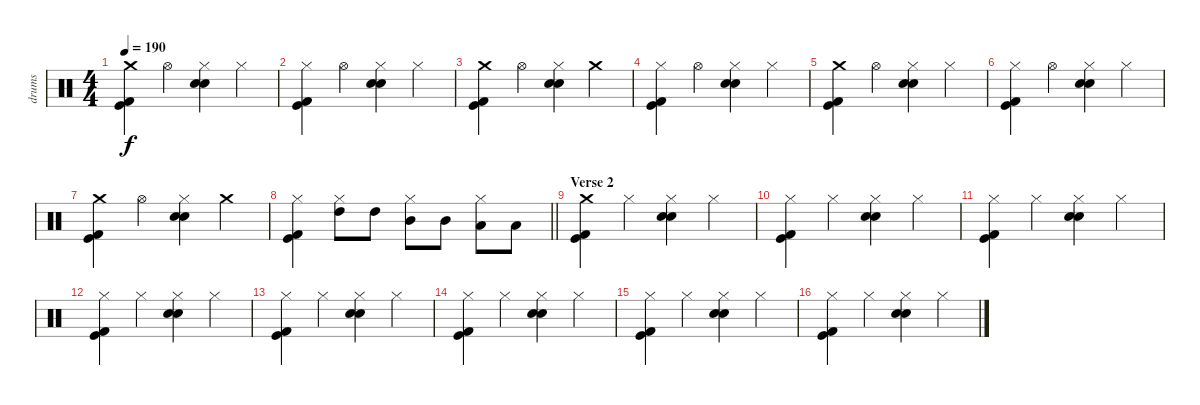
\track ("drums" "drums") {instrument percussion}
\staff {score}
\articulation defaults
\ts (4 4)
\tempo 190
\clef neutral
\ks c
("Crash medium (hit)" "Kick (hit) 2" "Kick (hit)").4{dy f} "Hi-Hat (open)".4 ("Hi-Hat (closed)" "Snare (hit) 2" "Electric Snare (hit)").4 "Hi-Hat (closed)".4 |
("Hi-Hat (closed)" "Kick (hit) 2" "Kick (hit)").4 "Hi-Hat (open)".4 ("Hi-Hat (closed)" "Snare (hit) 2" "Electric Snare (hit)").4 "Hi-Hat (closed)".4 |
("Crash medium (hit)" "Kick (hit) 2" "Kick (hit)").4 "Hi-Hat (open)".4 ("Hi-Hat (closed)" "Snare (hit) 2" "Electric Snare (hit)").4 "Crash medium (hit)".4 |
("Hi-Hat (closed)" "Kick (hit) 2" "Kick (hit)").4 "Hi-Hat (open)".4 ("Hi-Hat (closed)" "Snare (hit) 2" "Electric Snare (hit)").4 "Hi-Hat (closed)".4 |
("Crash medium (hit)" "Kick (hit) 2" "Kick (hit)").4 "Hi-Hat (open)".4 ("Hi-Hat (closed)" "Snare (hit) 2" "Electric Snare (hit)").4 "Hi-Hat (closed)".4 |
("Hi-Hat (closed)" "Kick (hit) 2" "Kick (hit)").4 "Hi-Hat (open)".4 ("Hi-Hat (closed)" "Snare (hit) 2" "Electric Snare (hit)").4 "Hi-Hat (closed)".4 |
("Crash medium (hit)" "Kick (hit) 2" "Kick (hit)").4 "Hi-Hat (open)".4 ("Hi-Hat (closed)" "Snare (hit) 2" "Electric Snare (hit)").4 "Crash medium (hit)".4 |
\barLineRight lightlight
("Hi-Hat (closed)" "Kick (hit) 2" "Kick (hit)").4 ("Hi-Hat (closed)" "High Tom (hit)").8 "High Tom (hit)".8 ("Hi-Hat (closed)" "Mid Tom (hit)").8 "Mid Tom (hit)".8 ("Hi-Hat (closed)" "Low Tom (hit)").8 "Low Tom (hit)".8 |
\section ("" "Verse 2")
("Crash medium (hit)" "Kick (hit) 2" "Kick (hit)").4 "Hi-Hat (closed)".4 ("Hi-Hat (closed)" "Electric Snare (hit)" "Snare (hit) 2").4 "Hi-Hat (closed)".4 |
("Hi-Hat (closed)" "Kick (hit) 2" "Kick (hit)").4 "Hi-Hat (closed)".4 ("Hi-Hat (closed)" "Electric Snare (hit)" "Snare (hit) 2").4 "Hi-Hat (closed)".4 |
("Hi-Hat (closed)" "Kick (hit) 2" "Kick (hit)").4 "Hi-Hat (closed)".4 ("Hi-Hat (closed)" "Electric Snare (hit)" "Snare (hit) 2").4 "Hi-Hat (closed)".4 |
("Hi-Hat (closed)" "Kick (hit) 2" "Kick (hit)").4 "Hi-Hat (closed)".4 ("Hi-Hat (closed)" "Electric Snare (hit)" "Snare (hit) 2").4 "Hi-Hat (closed)".4 |
("Hi-Hat (closed)" "Kick (hit) 2" "Kick (hit)").4 "Hi-Hat (closed)".4 ("Hi-Hat (closed)" "Electric Snare (hit)" "Snare (hit) 2").4 "Hi-Hat (closed)".4 |
("Hi-Hat (closed)" "Kick (hit) 2" "Kick (hit)").4 "Hi-Hat (closed)".4 ("Hi-Hat (closed)" "Electric Snare (hit)" "Snare (hit) 2").4 "Hi-Hat (closed)".4 |
("Hi-Hat (closed)" "Kick (hit) 2" "Kick (hit)").4 "Hi-Hat (closed)".4 ("Hi-Hat (closed)" "Electric Snare (hit)" "Snare (hit) 2").4 "Hi-Hat (closed)".4 |
("Hi-Hat (closed)" "Kick (hit) 2" "Kick (hit)").4 "Hi-Hat (closed)".4 ("Hi-Hat (closed)" "Electric Snare (hit)" "Snare (hit) 2").4 "Hi-Hat (closed)".4
